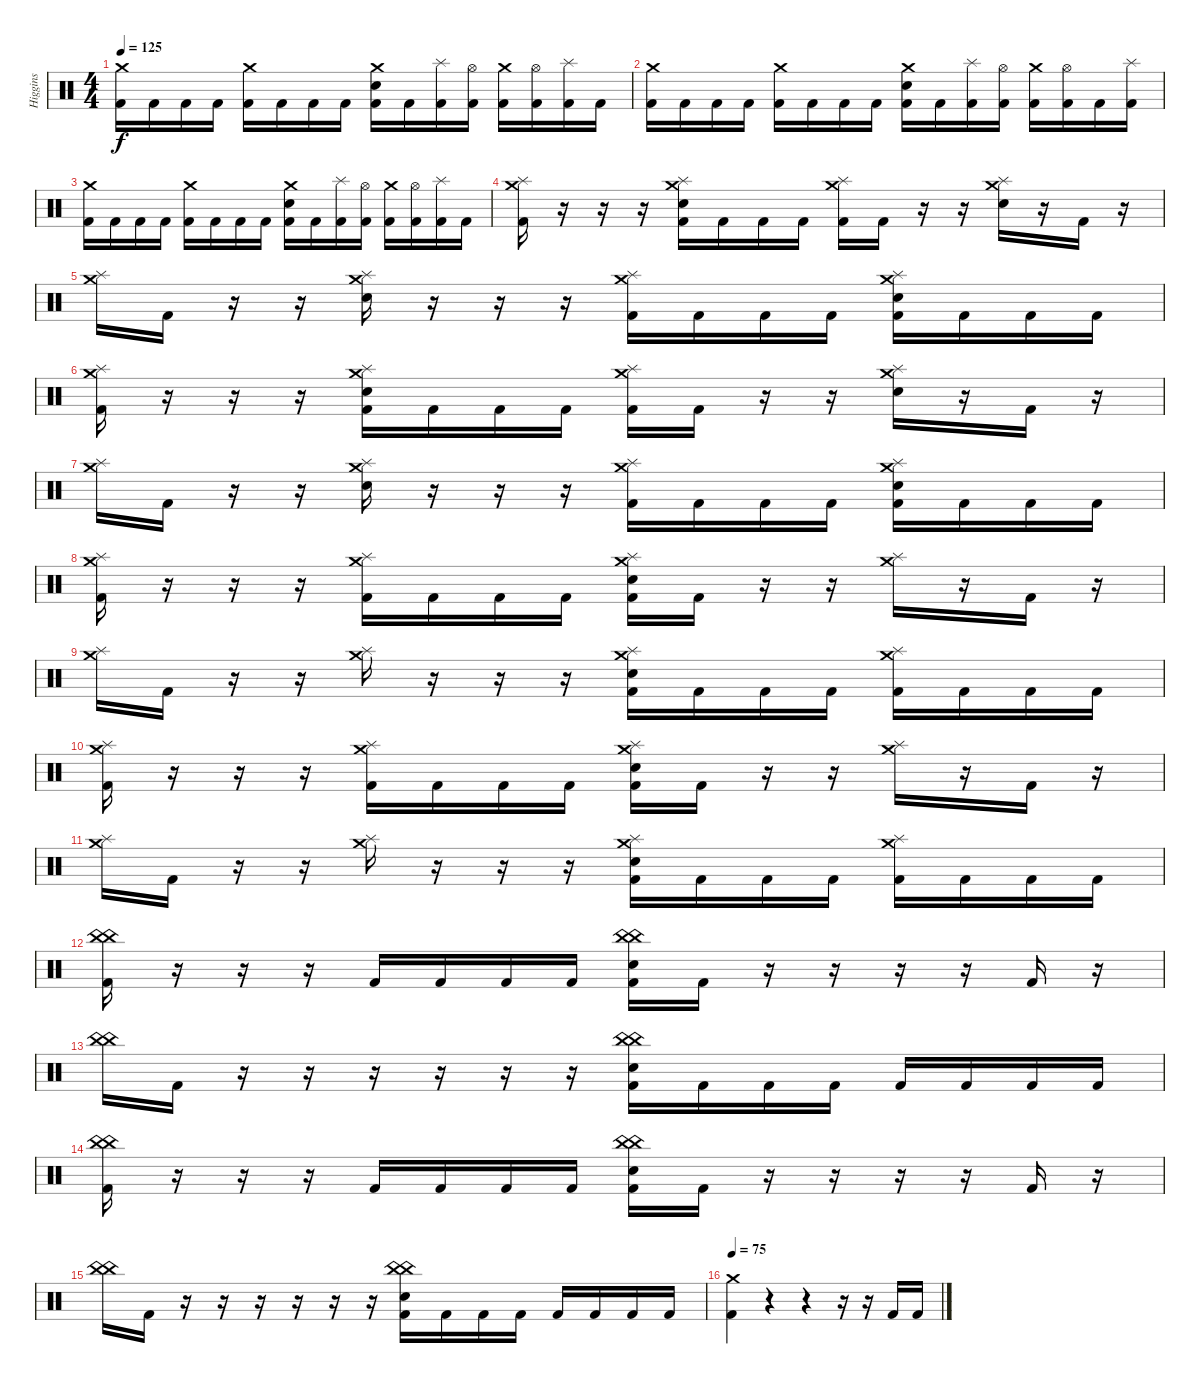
\track ("Higgins" "Higgins") {instrument percussion}
\staff {score}
\articulation defaults
\ts (4 4)
\tempo 125
\clef neutral
\ks c
("Crash medium (hit)" "Kick (hit) 2").16{dy f} "Kick (hit) 2".16 "Kick (hit) 2".16 "Kick (hit) 2".16 ("Crash medium (hit)" "Kick (hit) 2").16 "Kick (hit) 2".16 "Kick (hit) 2".16 "Kick (hit) 2".16 ("Crash medium (hit)" "Snare (hit) 2" "Kick (hit) 2").16 "Kick (hit) 2".16 ("Splash (hit)" "Kick (hit) 2").16 ("Hi-Hat (open)" "Kick (hit) 2").16 ("Crash medium (hit)" "Kick (hit) 2").16 ("Hi-Hat (open)" "Kick (hit) 2").16 ("Splash (hit)" "Kick (hit) 2").16 "Kick (hit) 2".16 |
("Crash medium (hit)" "Kick (hit) 2").16 "Kick (hit) 2".16 "Kick (hit) 2".16 "Kick (hit) 2".16 ("Crash medium (hit)" "Kick (hit) 2").16 "Kick (hit) 2".16 "Kick (hit) 2".16 "Kick (hit) 2".16 ("Crash medium (hit)" "Snare (hit) 2" "Kick (hit) 2").16 "Kick (hit) 2".16 ("Splash (hit)" "Kick (hit) 2").16 ("Hi-Hat (open)" "Kick (hit) 2").16 ("Crash medium (hit)" "Kick (hit) 2").16 ("Hi-Hat (open)" "Kick (hit) 2").16 "Kick (hit) 2".16 ("Splash (hit)" "Kick (hit) 2").16 |
("Crash medium (hit)" "Kick (hit) 2").16 "Kick (hit) 2".16 "Kick (hit) 2".16 "Kick (hit) 2".16 ("Crash medium (hit)" "Kick (hit) 2").16 "Kick (hit) 2".16 "Kick (hit) 2".16 "Kick (hit) 2".16 ("Crash medium (hit)" "Snare (hit) 2" "Kick (hit) 2").16 "Kick (hit) 2".16 ("Splash (hit)" "Kick (hit) 2").16 ("Hi-Hat (open)" "Kick (hit) 2").16 ("Crash medium (hit)" "Kick (hit) 2").16 ("Hi-Hat (open)" "Kick (hit) 2").16 ("Splash (hit)" "Kick (hit) 2").16 "Kick (hit) 2".16 |
("Crash medium (hit)" "Splash (hit)" "Kick (hit) 2").16 r.16 r.16 r.16 ("Crash medium (hit)" "Splash (hit)" "Snare (hit) 2" "Kick (hit) 2").16 "Kick (hit) 2".16 "Kick (hit) 2".16 "Kick (hit) 2".16 ("Crash medium (hit)" "Splash (hit)" "Kick (hit) 2").16 "Kick (hit) 2".16 r.16 r.16 ("Crash medium (hit)" "Splash (hit)" "Snare (hit) 2").16 r.16 "Kick (hit) 2".16 r.16 |
("Crash medium (hit)" "Splash (hit)").16 "Kick (hit) 2".16 r.16 r.16 ("Crash medium (hit)" "Splash (hit)" "Snare (hit) 2").16 r.16 r.16 r.16 ("Crash medium (hit)" "Splash (hit)" "Kick (hit) 2").16 "Kick (hit) 2".16 "Kick (hit) 2".16 "Kick (hit) 2".16 ("Crash medium (hit)" "Splash (hit)" "Snare (hit) 2" "Kick (hit) 2").16 "Kick (hit) 2".16 "Kick (hit) 2".16 "Kick (hit) 2".16 |
("Crash medium (hit)" "Splash (hit)" "Kick (hit) 2").16 r.16 r.16 r.16 ("Crash medium (hit)" "Splash (hit)" "Snare (hit) 2" "Kick (hit) 2").16 "Kick (hit) 2".16 "Kick (hit) 2".16 "Kick (hit) 2".16 ("Crash medium (hit)" "Splash (hit)" "Kick (hit) 2").16 "Kick (hit) 2".16 r.16 r.16 ("Crash medium (hit)" "Splash (hit)" "Snare (hit) 2").16 r.16 "Kick (hit) 2".16 r.16 |
("Crash medium (hit)" "Splash (hit)").16 "Kick (hit) 2".16 r.16 r.16 ("Crash medium (hit)" "Splash (hit)" "Snare (hit) 2").16 r.16 r.16 r.16 ("Crash medium (hit)" "Splash (hit)" "Kick (hit) 2").16 "Kick (hit) 2".16 "Kick (hit) 2".16 "Kick (hit) 2".16 ("Crash medium (hit)" "Splash (hit)" "Snare (hit) 2" "Kick (hit) 2").16 "Kick (hit) 2".16 "Kick (hit) 2".16 "Kick (hit) 2".16 |
("Crash medium (hit)" "Splash (hit)" "Kick (hit) 2").16 r.16 r.16 r.16 ("Crash medium (hit)" "Splash (hit)" "Kick (hit) 2").16 "Kick (hit) 2".16 "Kick (hit) 2".16 "Kick (hit) 2".16 ("Crash medium (hit)" "Splash (hit)" "Snare (hit) 2" "Kick (hit) 2").16 "Kick (hit) 2".16 r.16 r.16 ("Crash medium (hit)" "Splash (hit)").16 r.16 "Kick (hit) 2".16 r.16 |
("Crash medium (hit)" "Splash (hit)").16 "Kick (hit) 2".16 r.16 r.16 ("Crash medium (hit)" "Splash (hit)").16 r.16 r.16 r.16 ("Crash medium (hit)" "Splash (hit)" "Snare (hit) 2" "Kick (hit) 2").16 "Kick (hit) 2".16 "Kick (hit) 2".16 "Kick (hit) 2".16 ("Crash medium (hit)" "Splash (hit)" "Kick (hit) 2").16 "Kick (hit) 2".16 "Kick (hit) 2".16 "Kick (hit) 2".16 |
("Crash medium (hit)" "Splash (hit)" "Kick (hit) 2").16 r.16 r.16 r.16 ("Crash medium (hit)" "Splash (hit)" "Kick (hit) 2").16 "Kick (hit) 2".16 "Kick (hit) 2".16 "Kick (hit) 2".16 ("Crash medium (hit)" "Splash (hit)" "Snare (hit) 2" "Kick (hit) 2").16 "Kick (hit) 2".16 r.16 r.16 ("Crash medium (hit)" "Splash (hit)").16 r.16 "Kick (hit) 2".16 r.16 |
("Crash medium (hit)" "Splash (hit)").16 "Kick (hit) 2".16 r.16 r.16 ("Crash medium (hit)" "Splash (hit)").16 r.16 r.16 r.16 ("Crash medium (hit)" "Splash (hit)" "Snare (hit) 2" "Kick (hit) 2").16 "Kick (hit) 2".16 "Kick (hit) 2".16 "Kick (hit) 2".16 ("Crash medium (hit)" "Splash (hit)" "Kick (hit) 2").16 "Kick (hit) 2".16 "Kick (hit) 2".16 "Kick (hit) 2".16 |
("China (hit)" "China (hit)" "Kick (hit) 2").16 r.16 r.16 r.16 "Kick (hit) 2".16 "Kick (hit) 2".16 "Kick (hit) 2".16 "Kick (hit) 2".16 ("China (hit)" "China (hit)" "Snare (hit) 2" "Kick (hit) 2").16 "Kick (hit) 2".16 r.16 r.16 r.16 r.16 "Kick (hit) 2".16 r.16 |
("China (hit)" "China (hit)").16 "Kick (hit) 2".16 r.16 r.16 r.16 r.16 r.16 r.16 ("China (hit)" "China (hit)" "Snare (hit) 2" "Kick (hit) 2").16 "Kick (hit) 2".16 "Kick (hit) 2".16 "Kick (hit) 2".16 "Kick (hit) 2".16 "Kick (hit) 2".16 "Kick (hit) 2".16 "Kick (hit) 2".16 |
("China (hit)" "China (hit)" "Kick (hit) 2").16 r.16 r.16 r.16 "Kick (hit) 2".16 "Kick (hit) 2".16 "Kick (hit) 2".16 "Kick (hit) 2".16 ("China (hit)" "China (hit)" "Snare (hit) 2" "Kick (hit) 2").16 "Kick (hit) 2".16 r.16 r.16 r.16 r.16 "Kick (hit) 2".16 r.16 |
("China (hit)" "China (hit)").16 "Kick (hit) 2".16 r.16 r.16 r.16 r.16 r.16 r.16 ("China (hit)" "China (hit)" "Snare (hit) 2" "Kick (hit) 2").16 "Kick (hit) 2".16 "Kick (hit) 2".16 "Kick (hit) 2".16 "Kick (hit) 2".16 "Kick (hit) 2".16 "Kick (hit) 2".16 "Kick (hit) 2".16 |
\tempo 75
("Crash medium (hit)" "Kick (hit) 2").4 r.4 r.4 r.16 r.16 "Kick (hit) 2".16 "Kick (hit) 2".16
